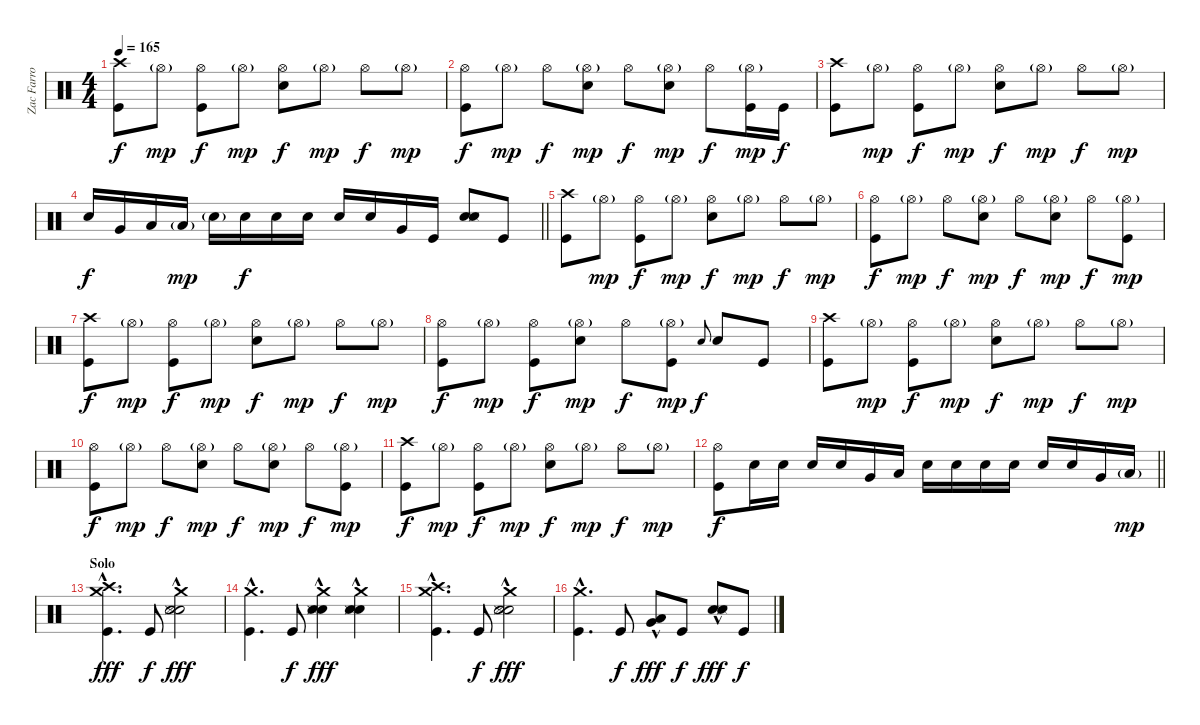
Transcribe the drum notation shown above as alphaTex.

\track ("Zac Farro (Drums)" "Zac Farro ") {instrument percussion}
\staff {score}
\articulation defaults
\ts (4 4)
\tempo 165
\clef neutral
\ks c
("Crash high (hit)" "Kick (hit)").8{dy f} "Hi-Hat (open)"{g}.8{dy mp} ("Hi-Hat (open)" "Kick (hit)").8{dy f} "Hi-Hat (open)"{g}.8{dy mp} ("Hi-Hat (open)" "Electric Snare (hit)").8{dy f} "Hi-Hat (open)"{g}.8{dy mp} "Hi-Hat (open)".8{dy f} "Hi-Hat (open)"{g}.8{dy mp} |
("Hi-Hat (open)" "Kick (hit)").8{dy f} "Hi-Hat (open)"{g}.8{dy mp} "Hi-Hat (open)".8{dy f} ("Hi-Hat (open)"{g} "Electric Snare (hit)").8{dy mp} "Hi-Hat (open)".8{dy f} ("Hi-Hat (open)"{g} "Electric Snare (hit)").8{dy mp} "Hi-Hat (open)".8{dy f} ("Hi-Hat (open)"{g} "Kick (hit)").16{dy mp} "Kick (hit)".16{dy f} |
("Crash high (hit)" "Kick (hit)").8 "Hi-Hat (open)"{g}.8{dy mp} ("Hi-Hat (open)" "Kick (hit)").8{dy f} "Hi-Hat (open)"{g}.8{dy mp} ("Hi-Hat (open)" "Electric Snare (hit)").8{dy f} "Hi-Hat (open)"{g}.8{dy mp} "Hi-Hat (open)".8{dy f} "Hi-Hat (open)"{g}.8{dy mp} |
\barLineRight lightlight "Electric Snare (hit)".16{dy f} "Very Low Tom (hit)".16 "Low Floor Tom (hit)".16 "Low Floor Tom (hit)"{g}.16{dy mp} "Electric Snare (hit)"{g}.16 "Electric Snare (hit)".16{dy f} "Electric Snare (hit)".16 "Electric Snare (hit)".16 "Electric Snare (hit)".16 "Electric Snare (hit)".16 "Very Low Tom (hit)".16 "Kick (hit)".16
("Snare (hit) 2" "Snare (side stick) 3" "Electric Snare (hit)").8 "Kick (hit)".8 |
\section ("" "")
("Crash high (hit)" "Kick (hit)").8 "Hi-Hat (open)"{g}.8{dy mp} ("Hi-Hat (open)" "Kick (hit)").8{dy f} "Hi-Hat (open)"{g}.8{dy mp} ("Hi-Hat (open)" "Electric Snare (hit)").8{dy f} "Hi-Hat (open)"{g}.8{dy mp} "Hi-Hat (open)".8{dy f} "Hi-Hat (open)"{g}.8{dy mp} |
("Hi-Hat (open)" "Kick (hit)").8{dy f} "Hi-Hat (open)"{g}.8{dy mp} "Hi-Hat (open)".8{dy f} ("Hi-Hat (open)"{g} "Electric Snare (hit)").8{dy mp} "Hi-Hat (open)".8{dy f} ("Hi-Hat (open)"{g} "Electric Snare (hit)").8{dy mp} "Hi-Hat (open)".8{dy f} ("Hi-Hat (open)"{g} "Kick (hit)").8{dy mp} |
("Crash high (hit)" "Kick (hit)").8{dy f} "Hi-Hat (open)"{g}.8{dy mp} ("Hi-Hat (open)" "Kick (hit)").8{dy f} "Hi-Hat (open)"{g}.8{dy mp} ("Hi-Hat (open)" "Electric Snare (hit)").8{dy f} "Hi-Hat (open)"{g}.8{dy mp} "Hi-Hat (open)".8{dy f} "Hi-Hat (open)"{g}.8{dy mp} |
("Hi-Hat (open)" "Kick (hit)").8{dy f} "Hi-Hat (open)"{g}.8{dy mp} ("Hi-Hat (open)" "Kick (hit)").8{dy f} ("Hi-Hat (open)"{g} "Electric Snare (hit)").8{dy mp} "Hi-Hat (open)".8{dy f} ("Hi-Hat (open)"{g} "Kick (hit)").8{dy mp} "Electric Snare (hit)".8{gr onbeat dy f} "Electric Snare (hit)".8 "Kick (hit)".8 |
("Crash high (hit)" "Kick (hit)").8 "Hi-Hat (open)"{g}.8{dy mp} ("Hi-Hat (open)" "Kick (hit)").8{dy f} "Hi-Hat (open)"{g}.8{dy mp} ("Hi-Hat (open)" "Electric Snare (hit)").8{dy f} "Hi-Hat (open)"{g}.8{dy mp} "Hi-Hat (open)".8{dy f} "Hi-Hat (open)"{g}.8{dy mp} |
("Hi-Hat (open)" "Kick (hit)").8{dy f} "Hi-Hat (open)"{g}.8{dy mp} "Hi-Hat (open)".8{dy f} ("Hi-Hat (open)"{g} "Electric Snare (hit)").8{dy mp} "Hi-Hat (open)".8{dy f} ("Hi-Hat (open)"{g} "Electric Snare (hit)").8{dy mp} "Hi-Hat (open)".8{dy f} ("Hi-Hat (open)"{g} "Kick (hit)").8{dy mp} |
("Crash high (hit)" "Kick (hit)").8{dy f} "Hi-Hat (open)"{g}.8{dy mp} ("Hi-Hat (open)" "Kick (hit)").8{dy f} "Hi-Hat (open)"{g}.8{dy mp} ("Hi-Hat (open)" "Electric Snare (hit)").8{dy f} "Hi-Hat (open)"{g}.8{dy mp} "Hi-Hat (open)".8{dy f} "Hi-Hat (open)"{g}.8{dy mp} |
\barLineRight lightlight
("Hi-Hat (open)" "Kick (hit)").8{dy f} "Electric Snare (hit)".16 "Electric Snare (hit)".16 "Electric Snare (hit)".16 "Electric Snare (hit)".16 "Very Low Tom (hit)".16 "Low Floor Tom (hit)".16 "Electric Snare (hit)".16 "Electric Snare (hit)".16 "Electric Snare (hit)".16 "Electric Snare (hit)".16 "Electric Snare (hit)".16 "Electric Snare (hit)".16 "Very Low Tom (hit)".16 "Low Floor Tom (hit)"{g}.16{dy mp} |
\section ("" "Solo")
("Crash high (hit)"{hac} "Crash medium (hit)"{hac} "Kick (hit)"{hac}).4{d dy fff} "Kick (hit)".8{dy f} ("Crash medium (hit)"{hac} "Snare (hit) 2"{hac} "Snare (side stick) 3"{hac} "Electric Snare (hit)"{hac}).2{dy fff} |
("Crash medium (hit)"{hac} "Kick (hit)"{hac}).4{d} "Kick (hit)".8{dy f} ("Crash medium (hit)"{hac} "Snare (hit) 2"{hac} "Snare (side stick) 3"{hac} "Electric Snare (hit)"{hac}).4{dy fff} ("Crash medium (hit)"{hac} "Snare (hit) 2"{hac} "Snare (side stick) 3"{hac} "Electric Snare (hit)"{hac}).4 |
("Crash high (hit)"{hac} "Crash medium (hit)"{hac} "Kick (hit)"{hac}).4{d} "Kick (hit)".8{dy f} ("Crash medium (hit)"{hac} "Snare (hit) 2"{hac} "Snare (side stick) 3"{hac} "Electric Snare (hit)"{hac}).2{dy fff} |
("Crash medium (hit)"{hac} "Kick (hit)"{hac}).4{d} "Kick (hit)".8{dy f} ("Very Low Tom (hit)"{hac} "Low Floor Tom (hit)"{hac}).8{dy fff} "Kick (hit)".8{dy f} ("Snare (hit) 2"{hac} "Snare (side stick) 3"{hac} "Electric Snare (hit)"{hac}).8{dy fff} "Kick (hit)".8{dy f}
